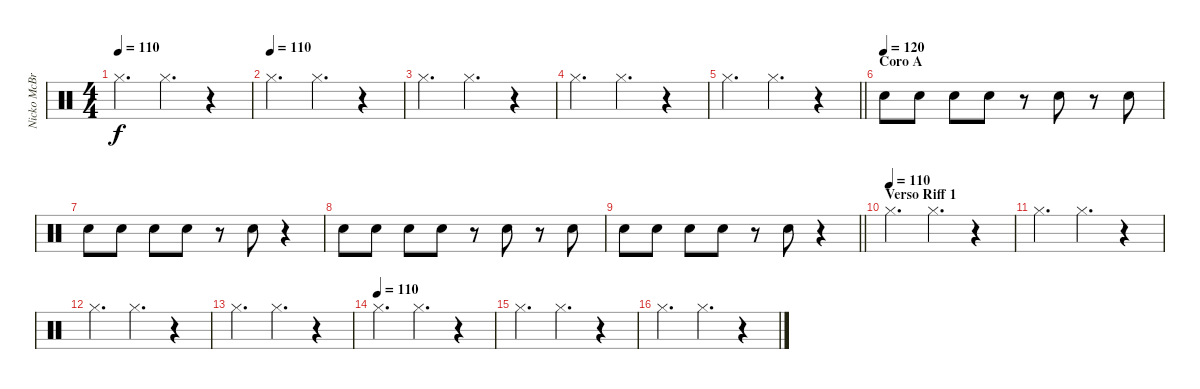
\track ("Nicko McBrain" "Nicko McBr") {instrument percussion}
\staff {score}
\articulation defaults
\ts (4 4)
\tempo 110
\clef neutral
\ks c "Hi-Hat (closed)".4{d dy f} "Hi-Hat (closed)".4{d}
r.4 |
\tempo (110)
"Hi-Hat (closed)".4{d} "Hi-Hat (closed)".4{d} r.4 |
"Hi-Hat (closed)".4{d} "Hi-Hat (closed)".4{d} r.4 |
"Hi-Hat (closed)".4{d} "Hi-Hat (closed)".4{d} r.4 |
\barLineRight lightlight "Hi-Hat (closed)".4{d} "Hi-Hat (closed)".4{d}
r.4 |
\section ("" "Coro A")
\tempo (120)
"Snare (hit) 2".8 "Snare (hit) 2".8 "Snare (hit) 2".8 "Snare (hit) 2".8 r.8 "Snare (hit) 2".8 r.8 "Snare (hit) 2".8 |
"Snare (hit) 2".8 "Snare (hit) 2".8 "Snare (hit) 2".8 "Snare (hit) 2".8 r.8 "Snare (hit) 2".8 r.4 |
"Snare (hit) 2".8 "Snare (hit) 2".8 "Snare (hit) 2".8 "Snare (hit) 2".8 r.8 "Snare (hit) 2".8 r.8 "Snare (hit) 2".8 |
\barLineRight lightlight "Snare (hit) 2".8 "Snare (hit) 2".8 "Snare (hit) 2".8 "Snare (hit) 2".8
r.8 "Snare (hit) 2".8 r.4 |
\section ("" "Verso Riff 1")
\tempo (110)
"Hi-Hat (closed)".4{d} "Hi-Hat (closed)".4{d} r.4 |
"Hi-Hat (closed)".4{d} "Hi-Hat (closed)".4{d} r.4 |
"Hi-Hat (closed)".4{d} "Hi-Hat (closed)".4{d} r.4 |
"Hi-Hat (closed)".4{d} "Hi-Hat (closed)".4{d} r.4 |
\tempo (110)
"Hi-Hat (closed)".4{d} "Hi-Hat (closed)".4{d} r.4 |
"Hi-Hat (closed)".4{d} "Hi-Hat (closed)".4{d} r.4 |
"Hi-Hat (closed)".4{d} "Hi-Hat (closed)".4{d} r.4
